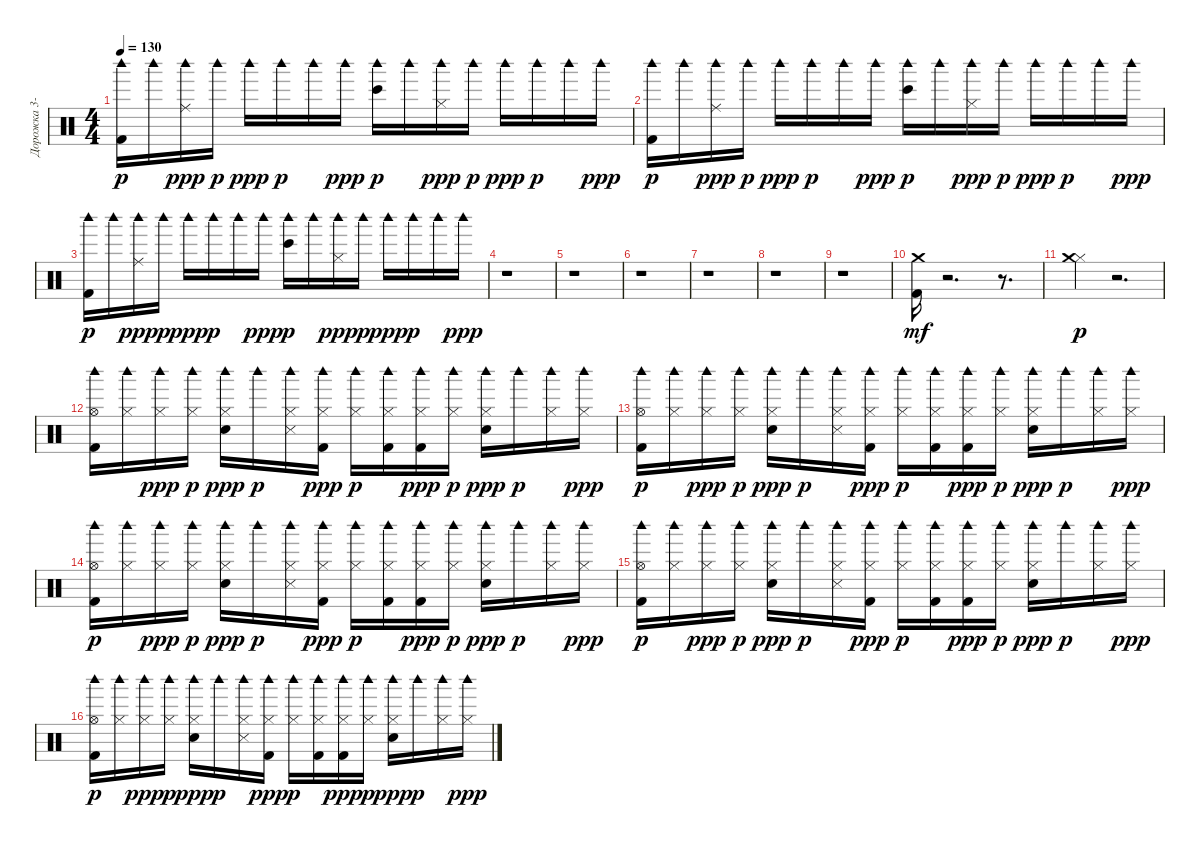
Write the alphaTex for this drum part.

\track ("Дорожка 3-4-5" "Дорожка 3-") {instrument percussion}
\staff {score}
\articulation defaults
\ts (4 4)
\tempo 130
\clef neutral
\ks c
("Kick (hit) 2" "Woodblock high (hit)").16{dy p} "Woodblock high (hit)".16 ("Ride (middle)" "Woodblock high (hit)").16{dy ppp} "Woodblock high (hit)".16{dy p} "Woodblock high (hit)".16{dy ppp} "Woodblock high (hit)".16{dy p} "Woodblock high (hit)".16 "Woodblock high (hit)".16{dy ppp} ("Bongo High (hit)" "Woodblock high (hit)").16{dy p} "Woodblock high (hit)".16 ("Hi-Hat (closed)" "Woodblock high (hit)").16{dy ppp} "Woodblock high (hit)".16{dy p} "Woodblock high (hit)".16{dy ppp} "Woodblock high (hit)".16{dy p} "Woodblock high (hit)".16 "Woodblock high (hit)".16{dy ppp} |
("Kick (hit) 2" "Woodblock high (hit)").16{dy p} "Woodblock high (hit)".16 ("Ride (middle)" "Woodblock high (hit)").16{dy ppp} "Woodblock high (hit)".16{dy p} "Woodblock high (hit)".16{dy ppp} "Woodblock high (hit)".16{dy p} "Woodblock high (hit)".16 "Woodblock high (hit)".16{dy ppp} ("Bongo High (hit)" "Woodblock high (hit)").16{dy p} "Woodblock high (hit)".16 ("Hi-Hat (closed)" "Woodblock high (hit)").16{dy ppp} "Woodblock high (hit)".16{dy p} "Woodblock high (hit)".16{dy ppp} "Woodblock high (hit)".16{dy p} "Woodblock high (hit)".16 "Woodblock high (hit)".16{dy ppp} |
("Kick (hit) 2" "Woodblock high (hit)").16{dy p} "Woodblock high (hit)".16 ("Ride (middle)" "Woodblock high (hit)").16{dy ppp} "Woodblock high (hit)".16{dy p} "Woodblock high (hit)".16{dy ppp} "Woodblock high (hit)".16{dy p} "Woodblock high (hit)".16 "Woodblock high (hit)".16{dy ppp} ("Bongo High (hit)" "Woodblock high (hit)").16{dy p} "Woodblock high (hit)".16 ("Hi-Hat (closed)" "Woodblock high (hit)").16{dy ppp} "Woodblock high (hit)".16{dy p} "Woodblock high (hit)".16{dy ppp} "Woodblock high (hit)".16{dy p} "Woodblock high (hit)".16 "Woodblock high (hit)".16{dy ppp} |
r.1 |
r.1 |
r.1 |
r.1 |
r.1 |
r.1 |
("Crash medium (hit)" "Kick (hit) 2").16{dy mf} r.2{d} r.8{d} |
("Hi-Hat (closed)" "Crash medium (hit)").4{dy p} r.2{d} |
("Kick (hit) 2" "Hi-Hat (open)" "Woodblock high (hit)").16 ("Hi-Hat (closed)" "Woodblock high (hit)").16 ("Hi-Hat (closed)" "Woodblock high (hit)").16{dy ppp} ("Hi-Hat (closed)" "Woodblock high (hit)").16{dy p} ("Electric Snare (hit)" "Hi-Hat (closed)" "Woodblock high (hit)").16{dy ppp} "Woodblock high (hit)".16{dy p} ("Snare (side stick) 3" "Hi-Hat (closed)" "Woodblock high (hit)").16 ("Kick (hit) 2" "Hi-Hat (closed)" "Woodblock high (hit)").16{dy ppp} ("Hi-Hat (closed)" "Woodblock high (hit)").16{dy p} ("Kick (hit) 2" "Hi-Hat (closed)" "Woodblock high (hit)").16 ("Kick (hit) 2" "Hi-Hat (closed)" "Woodblock high (hit)").16{dy ppp} ("Hi-Hat (closed)" "Woodblock high (hit)").16{dy p} ("Electric Snare (hit)" "Hi-Hat (closed)" "Woodblock high (hit)").16{dy ppp} "Woodblock high (hit)".16{dy p} ("Hi-Hat (closed)" "Woodblock high (hit)").16 ("Hi-Hat (closed)" "Woodblock high (hit)").16{dy ppp} |
("Kick (hit) 2" "Hi-Hat (open)" "Woodblock high (hit)").16{dy p} ("Hi-Hat (closed)" "Woodblock high (hit)").16 ("Hi-Hat (closed)" "Woodblock high (hit)").16{dy ppp} ("Hi-Hat (closed)" "Woodblock high (hit)").16{dy p} ("Electric Snare (hit)" "Hi-Hat (closed)" "Woodblock high (hit)").16{dy ppp} "Woodblock high (hit)".16{dy p} ("Snare (side stick) 3" "Hi-Hat (closed)" "Woodblock high (hit)").16 ("Kick (hit) 2" "Hi-Hat (closed)" "Woodblock high (hit)").16{dy ppp} ("Hi-Hat (closed)" "Woodblock high (hit)").16{dy p} ("Kick (hit) 2" "Hi-Hat (closed)" "Woodblock high (hit)").16 ("Kick (hit) 2" "Hi-Hat (closed)" "Woodblock high (hit)").16{dy ppp} ("Hi-Hat (closed)" "Woodblock high (hit)").16{dy p} ("Electric Snare (hit)" "Hi-Hat (closed)" "Woodblock high (hit)").16{dy ppp} "Woodblock high (hit)".16{dy p} ("Hi-Hat (closed)" "Woodblock high (hit)").16 ("Hi-Hat (closed)" "Woodblock high (hit)").16{dy ppp} |
("Kick (hit) 2" "Hi-Hat (open)" "Woodblock high (hit)").16{dy p} ("Hi-Hat (closed)" "Woodblock high (hit)").16 ("Hi-Hat (closed)" "Woodblock high (hit)").16{dy ppp} ("Hi-Hat (closed)" "Woodblock high (hit)").16{dy p} ("Electric Snare (hit)" "Hi-Hat (closed)" "Woodblock high (hit)").16{dy ppp} "Woodblock high (hit)".16{dy p} ("Snare (side stick) 3" "Hi-Hat (closed)" "Woodblock high (hit)").16 ("Kick (hit) 2" "Hi-Hat (closed)" "Woodblock high (hit)").16{dy ppp} ("Hi-Hat (closed)" "Woodblock high (hit)").16{dy p} ("Kick (hit) 2" "Hi-Hat (closed)" "Woodblock high (hit)").16 ("Kick (hit) 2" "Hi-Hat (closed)" "Woodblock high (hit)").16{dy ppp} ("Hi-Hat (closed)" "Woodblock high (hit)").16{dy p} ("Electric Snare (hit)" "Hi-Hat (closed)" "Woodblock high (hit)").16{dy ppp} "Woodblock high (hit)".16{dy p} ("Hi-Hat (closed)" "Woodblock high (hit)").16 ("Hi-Hat (closed)" "Woodblock high (hit)").16{dy ppp} |
("Kick (hit) 2" "Hi-Hat (open)" "Woodblock high (hit)").16{dy p} ("Hi-Hat (closed)" "Woodblock high (hit)").16 ("Hi-Hat (closed)" "Woodblock high (hit)").16{dy ppp} ("Hi-Hat (closed)" "Woodblock high (hit)").16{dy p} ("Electric Snare (hit)" "Hi-Hat (closed)" "Woodblock high (hit)").16{dy ppp} "Woodblock high (hit)".16{dy p} ("Snare (side stick) 3" "Hi-Hat (closed)" "Woodblock high (hit)").16 ("Kick (hit) 2" "Hi-Hat (closed)" "Woodblock high (hit)").16{dy ppp} ("Hi-Hat (closed)" "Woodblock high (hit)").16{dy p} ("Kick (hit) 2" "Hi-Hat (closed)" "Woodblock high (hit)").16 ("Kick (hit) 2" "Hi-Hat (closed)" "Woodblock high (hit)").16{dy ppp} ("Hi-Hat (closed)" "Woodblock high (hit)").16{dy p} ("Electric Snare (hit)" "Hi-Hat (closed)" "Woodblock high (hit)").16{dy ppp} "Woodblock high (hit)".16{dy p} ("Hi-Hat (closed)" "Woodblock high (hit)").16 ("Hi-Hat (closed)" "Woodblock high (hit)").16{dy ppp} |
("Kick (hit) 2" "Hi-Hat (open)" "Woodblock high (hit)").16{dy p} ("Hi-Hat (closed)" "Woodblock high (hit)").16 ("Hi-Hat (closed)" "Woodblock high (hit)").16{dy ppp} ("Hi-Hat (closed)" "Woodblock high (hit)").16{dy p} ("Electric Snare (hit)" "Hi-Hat (closed)" "Woodblock high (hit)").16{dy ppp} "Woodblock high (hit)".16{dy p} ("Snare (side stick) 3" "Hi-Hat (closed)" "Woodblock high (hit)").16 ("Kick (hit) 2" "Hi-Hat (closed)" "Woodblock high (hit)").16{dy ppp} ("Hi-Hat (closed)" "Woodblock high (hit)").16{dy p} ("Kick (hit) 2" "Hi-Hat (closed)" "Woodblock high (hit)").16 ("Kick (hit) 2" "Hi-Hat (closed)" "Woodblock high (hit)").16{dy ppp} ("Hi-Hat (closed)" "Woodblock high (hit)").16{dy p} ("Electric Snare (hit)" "Hi-Hat (closed)" "Woodblock high (hit)").16{dy ppp} "Woodblock high (hit)".16{dy p} ("Hi-Hat (closed)" "Woodblock high (hit)").16 ("Hi-Hat (closed)" "Woodblock high (hit)").16{dy ppp}
